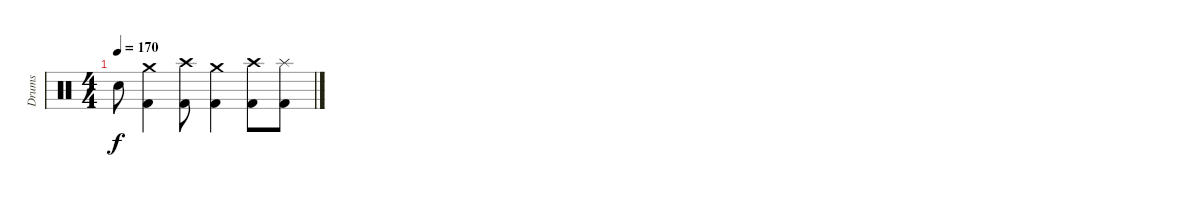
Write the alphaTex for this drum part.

\track ("Drums" "Drums") {instrument percussion}
\staff {score}
\articulation defaults
\ts (4 4)
\tempo 170
\clef neutral
\ks c "Snare (hit) 2".8{dy f}
("Crash medium (hit)" "Kick (hit) 2").4 ("Crash high (hit)" "Kick (hit) 2").8 ("Crash medium (hit)" "Kick (hit) 2").4 ("Crash high (hit)" "Kick (hit) 2").8 ("Splash (hit)" "Kick (hit) 2").8
